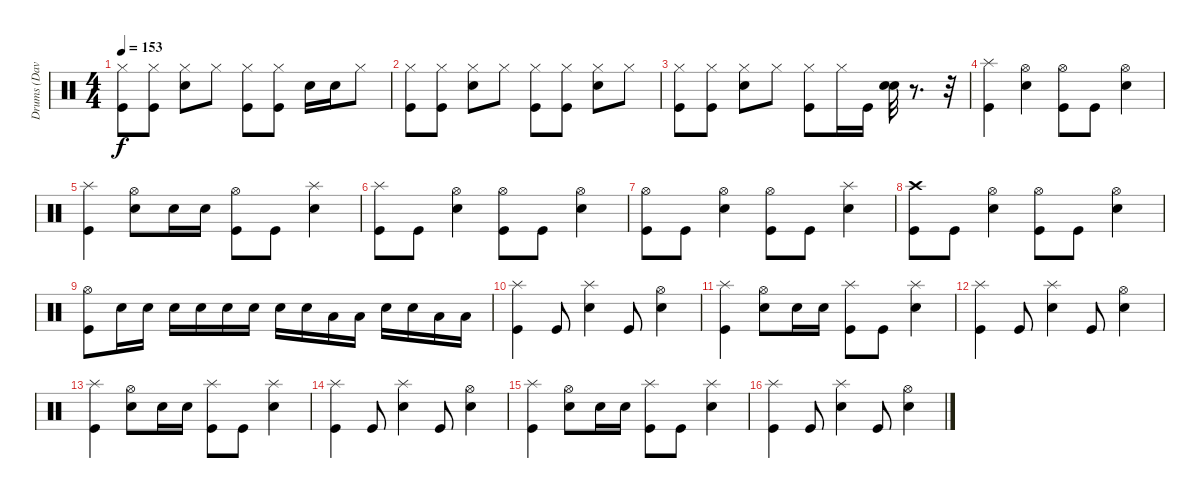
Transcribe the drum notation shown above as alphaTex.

\track ("Drums (Dave)" "Drums (Dav") {instrument percussion}
\staff {score}
\articulation defaults
\ts (4 4)
\tempo 153
\clef neutral
\ks c
("Hi-Hat (closed)" "Kick (hit)").8{dy f} ("Hi-Hat (closed)" "Kick (hit)").8 ("Hi-Hat (closed)" "Snare (hit) 2").8 "Hi-Hat (closed)".8 ("Hi-Hat (closed)" "Kick (hit)").8 ("Hi-Hat (closed)" "Kick (hit)").8 "Snare (hit) 2".16 "Snare (hit) 2".16 "Hi-Hat (closed)".8 |
("Hi-Hat (closed)" "Kick (hit)").8 ("Hi-Hat (closed)" "Kick (hit)").8 ("Hi-Hat (closed)" "Snare (hit) 2").8 "Hi-Hat (closed)".8 ("Hi-Hat (closed)" "Kick (hit)").8 ("Hi-Hat (closed)" "Kick (hit)").8 ("Hi-Hat (closed)" "Snare (hit) 2").8 "Hi-Hat (closed)".8 |
("Hi-Hat (closed)" "Kick (hit)").8 ("Hi-Hat (closed)" "Kick (hit)").8 ("Hi-Hat (closed)" "Snare (hit) 2").8 "Hi-Hat (closed)".8 ("Hi-Hat (closed)" "Kick (hit)").8 "Hi-Hat (closed)".16 "Kick (hit)".16 ("Snare (hit) 2" "Snare (hit) 2").32 r.8{d} r.32 |
("Splash (hit)" "Kick (hit)").4 ("Hi-Hat (open)" "Snare (hit) 2").4 ("Hi-Hat (open)" "Kick (hit)").8 "Kick (hit)".8 ("Hi-Hat (open)" "Snare (hit) 2").4 |
("Splash (hit)" "Kick (hit)").4 ("Hi-Hat (open)" "Snare (hit) 2").8 "Snare (hit) 2".16 "Snare (hit) 2".16 ("Hi-Hat (open)" "Kick (hit)").8 "Kick (hit)".8 ("Splash (hit)" "Snare (hit) 2").4 |
("Splash (hit)" "Kick (hit)").8 "Kick (hit)".8 ("Hi-Hat (open)" "Snare (hit) 2").4 ("Hi-Hat (open)" "Kick (hit)").8 "Kick (hit)".8 ("Hi-Hat (open)" "Snare (hit) 2").4 |
("Hi-Hat (open)" "Kick (hit)").8 "Kick (hit)".8 ("Hi-Hat (open)" "Snare (hit) 2").4 ("Hi-Hat (open)" "Kick (hit)").8 "Kick (hit)".8 ("Splash (hit)" "Snare (hit) 2").4 |
("Crash high (hit)" "Kick (hit)").8 "Kick (hit)".8 ("Hi-Hat (open)" "Snare (hit) 2").4 ("Hi-Hat (open)" "Kick (hit)").8 "Kick (hit)".8 ("Hi-Hat (open)" "Snare (hit) 2").4 |
("Hi-Hat (open)" "Kick (hit)").8 "Snare (hit) 2".16 "Snare (hit) 2".16 "Snare (hit) 2".16 "Snare (hit) 2".16 "Snare (hit) 2".16 "Snare (hit) 2".16 "Snare (hit) 2".16 "Snare (hit) 2".16 "Low Tom (hit)".16 "Low Tom (hit)".16 "Snare (hit) 2".16 "Snare (hit) 2".16 "Low Tom (hit)".16 "Low Tom (hit)".16 |
("Splash (hit)" "Kick (hit)").4 "Kick (hit)".8 ("Splash (hit)" "Snare (hit) 2").4 "Kick (hit)".8 ("Hi-Hat (open)" "Snare (hit) 2").4 |
("Splash (hit)" "Kick (hit)").4 ("Hi-Hat (open)" "Snare (hit) 2").8 "Snare (hit) 2".16 "Snare (hit) 2".16 ("Splash (hit)" "Kick (hit)").8 "Kick (hit)".8 ("Splash (hit)" "Snare (hit) 2").4 |
("Splash (hit)" "Kick (hit)").4 "Kick (hit)".8 ("Splash (hit)" "Snare (hit) 2").4 "Kick (hit)".8 ("Hi-Hat (open)" "Snare (hit) 2").4 |
("Splash (hit)" "Kick (hit)").4 ("Hi-Hat (open)" "Snare (hit) 2").8 "Snare (hit) 2".16 "Snare (hit) 2".16 ("Splash (hit)" "Kick (hit)").8 "Kick (hit)".8 ("Splash (hit)" "Snare (hit) 2").4 |
("Splash (hit)" "Kick (hit)").4 "Kick (hit)".8 ("Splash (hit)" "Snare (hit) 2").4 "Kick (hit)".8 ("Hi-Hat (open)" "Snare (hit) 2").4 |
("Splash (hit)" "Kick (hit)").4 ("Hi-Hat (open)" "Snare (hit) 2").8 "Snare (hit) 2".16 "Snare (hit) 2".16 ("Splash (hit)" "Kick (hit)").8 "Kick (hit)".8 ("Splash (hit)" "Snare (hit) 2").4 |
("Splash (hit)" "Kick (hit)").4 "Kick (hit)".8 ("Splash (hit)" "Snare (hit) 2").4 "Kick (hit)".8 ("Hi-Hat (open)" "Snare (hit) 2").4
